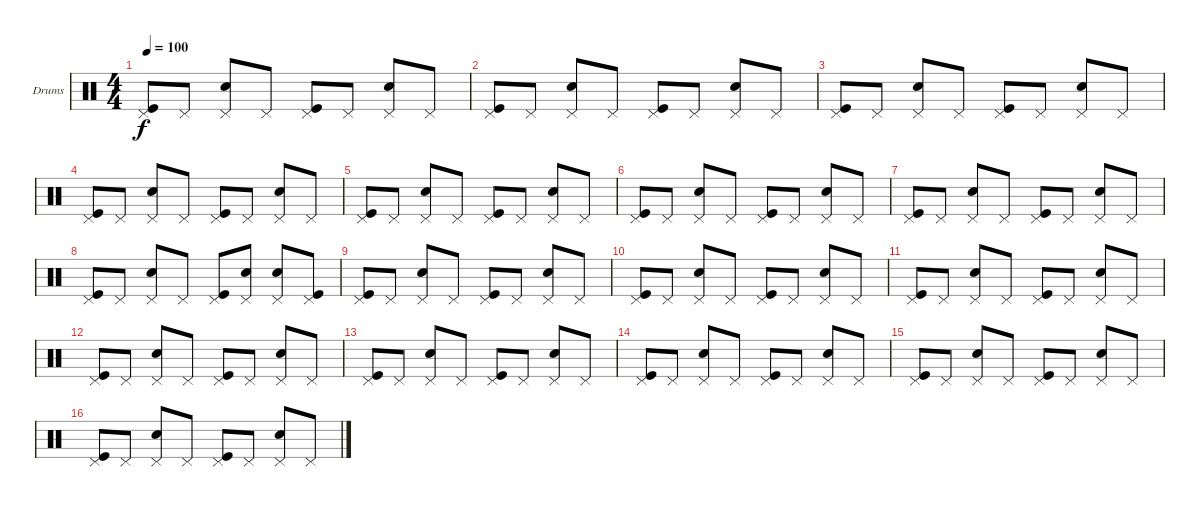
\defaultSystemsLayout 4
\bracketExtendMode groupsimilarinstruments
\firstSystemTrackNameOrientation horizontal
\otherSystemsTrackNameOrientation horizontal
\track ("Drumkit" "Drums") {instrument percussion}
\staff {score}
\articulation defaults
\ts (4 4)
\tempo 100
\clef neutral
\ks c
("Pedal Hi-Hat (hit)" "Kick (hit)").8{dy f} "Pedal Hi-Hat (hit)".8 ("Pedal Hi-Hat (hit)" "Snare (hit) 2").8 "Pedal Hi-Hat (hit)".8 ("Pedal Hi-Hat (hit)" "Kick (hit)").8 "Pedal Hi-Hat (hit)".8 ("Pedal Hi-Hat (hit)" "Snare (hit) 2").8 "Pedal Hi-Hat (hit)".8 |
("Pedal Hi-Hat (hit)" "Kick (hit)").8 "Pedal Hi-Hat (hit)".8 ("Pedal Hi-Hat (hit)" "Snare (hit) 2").8 "Pedal Hi-Hat (hit)".8 ("Pedal Hi-Hat (hit)" "Kick (hit)").8 "Pedal Hi-Hat (hit)".8 ("Pedal Hi-Hat (hit)" "Snare (hit) 2").8 "Pedal Hi-Hat (hit)".8 |
("Pedal Hi-Hat (hit)" "Kick (hit)").8 "Pedal Hi-Hat (hit)".8 ("Pedal Hi-Hat (hit)" "Snare (hit) 2").8 "Pedal Hi-Hat (hit)".8 ("Pedal Hi-Hat (hit)" "Kick (hit)").8 "Pedal Hi-Hat (hit)".8 ("Pedal Hi-Hat (hit)" "Snare (hit) 2").8 "Pedal Hi-Hat (hit)".8 |
("Pedal Hi-Hat (hit)" "Kick (hit)").8 "Pedal Hi-Hat (hit)".8 ("Pedal Hi-Hat (hit)" "Snare (hit) 2").8 "Pedal Hi-Hat (hit)".8 ("Pedal Hi-Hat (hit)" "Kick (hit)").8 "Pedal Hi-Hat (hit)".8 ("Pedal Hi-Hat (hit)" "Snare (hit) 2").8 "Pedal Hi-Hat (hit)".8 |
("Pedal Hi-Hat (hit)" "Kick (hit)").8 "Pedal Hi-Hat (hit)".8 ("Pedal Hi-Hat (hit)" "Snare (hit) 2").8 "Pedal Hi-Hat (hit)".8 ("Pedal Hi-Hat (hit)" "Kick (hit)").8 "Pedal Hi-Hat (hit)".8 ("Pedal Hi-Hat (hit)" "Snare (hit) 2").8 "Pedal Hi-Hat (hit)".8 |
("Pedal Hi-Hat (hit)" "Kick (hit)").8 "Pedal Hi-Hat (hit)".8 ("Pedal Hi-Hat (hit)" "Snare (hit) 2").8 "Pedal Hi-Hat (hit)".8 ("Pedal Hi-Hat (hit)" "Kick (hit)").8 "Pedal Hi-Hat (hit)".8 ("Pedal Hi-Hat (hit)" "Snare (hit) 2").8 "Pedal Hi-Hat (hit)".8 |
("Pedal Hi-Hat (hit)" "Kick (hit)").8 "Pedal Hi-Hat (hit)".8 ("Pedal Hi-Hat (hit)" "Snare (hit) 2").8 "Pedal Hi-Hat (hit)".8 ("Pedal Hi-Hat (hit)" "Kick (hit)").8 "Pedal Hi-Hat (hit)".8 ("Pedal Hi-Hat (hit)" "Snare (hit) 2").8 "Pedal Hi-Hat (hit)".8 |
("Pedal Hi-Hat (hit)" "Kick (hit)").8 "Pedal Hi-Hat (hit)".8 ("Pedal Hi-Hat (hit)" "Snare (hit) 2").8 "Pedal Hi-Hat (hit)".8 ("Pedal Hi-Hat (hit)" "Kick (hit)").8 ("Pedal Hi-Hat (hit)" "Snare (hit) 2").8 ("Pedal Hi-Hat (hit)" "Snare (hit) 2").8 ("Pedal Hi-Hat (hit)" "Kick (hit)").8 |
("Pedal Hi-Hat (hit)" "Kick (hit)").8 "Pedal Hi-Hat (hit)".8 ("Pedal Hi-Hat (hit)" "Snare (hit) 2").8 "Pedal Hi-Hat (hit)".8 ("Pedal Hi-Hat (hit)" "Kick (hit)").8 "Pedal Hi-Hat (hit)".8 ("Pedal Hi-Hat (hit)" "Snare (hit) 2").8 "Pedal Hi-Hat (hit)".8 |
("Pedal Hi-Hat (hit)" "Kick (hit)").8 "Pedal Hi-Hat (hit)".8 ("Pedal Hi-Hat (hit)" "Snare (hit) 2").8 "Pedal Hi-Hat (hit)".8 ("Pedal Hi-Hat (hit)" "Kick (hit)").8 "Pedal Hi-Hat (hit)".8 ("Pedal Hi-Hat (hit)" "Snare (hit) 2").8 "Pedal Hi-Hat (hit)".8 |
("Pedal Hi-Hat (hit)" "Kick (hit)").8 "Pedal Hi-Hat (hit)".8 ("Pedal Hi-Hat (hit)" "Snare (hit) 2").8 "Pedal Hi-Hat (hit)".8 ("Pedal Hi-Hat (hit)" "Kick (hit)").8 "Pedal Hi-Hat (hit)".8 ("Pedal Hi-Hat (hit)" "Snare (hit) 2").8 "Pedal Hi-Hat (hit)".8 |
("Pedal Hi-Hat (hit)" "Kick (hit)").8 "Pedal Hi-Hat (hit)".8 ("Pedal Hi-Hat (hit)" "Snare (hit) 2").8 "Pedal Hi-Hat (hit)".8 ("Pedal Hi-Hat (hit)" "Kick (hit)").8 "Pedal Hi-Hat (hit)".8 ("Pedal Hi-Hat (hit)" "Snare (hit) 2").8 "Pedal Hi-Hat (hit)".8 |
("Pedal Hi-Hat (hit)" "Kick (hit)").8 "Pedal Hi-Hat (hit)".8 ("Pedal Hi-Hat (hit)" "Snare (hit) 2").8 "Pedal Hi-Hat (hit)".8 ("Pedal Hi-Hat (hit)" "Kick (hit)").8 "Pedal Hi-Hat (hit)".8 ("Pedal Hi-Hat (hit)" "Snare (hit) 2").8 "Pedal Hi-Hat (hit)".8 |
("Pedal Hi-Hat (hit)" "Kick (hit)").8 "Pedal Hi-Hat (hit)".8 ("Pedal Hi-Hat (hit)" "Snare (hit) 2").8 "Pedal Hi-Hat (hit)".8 ("Pedal Hi-Hat (hit)" "Kick (hit)").8 "Pedal Hi-Hat (hit)".8 ("Pedal Hi-Hat (hit)" "Snare (hit) 2").8 "Pedal Hi-Hat (hit)".8 |
("Pedal Hi-Hat (hit)" "Kick (hit)").8 "Pedal Hi-Hat (hit)".8 ("Pedal Hi-Hat (hit)" "Snare (hit) 2").8 "Pedal Hi-Hat (hit)".8 ("Pedal Hi-Hat (hit)" "Kick (hit)").8 "Pedal Hi-Hat (hit)".8 ("Pedal Hi-Hat (hit)" "Snare (hit) 2").8 "Pedal Hi-Hat (hit)".8 |
("Pedal Hi-Hat (hit)" "Kick (hit)").8 "Pedal Hi-Hat (hit)".8 ("Pedal Hi-Hat (hit)" "Snare (hit) 2").8 "Pedal Hi-Hat (hit)".8 ("Pedal Hi-Hat (hit)" "Kick (hit)").8 "Pedal Hi-Hat (hit)".8 ("Pedal Hi-Hat (hit)" "Snare (hit) 2").8 "Pedal Hi-Hat (hit)".8
